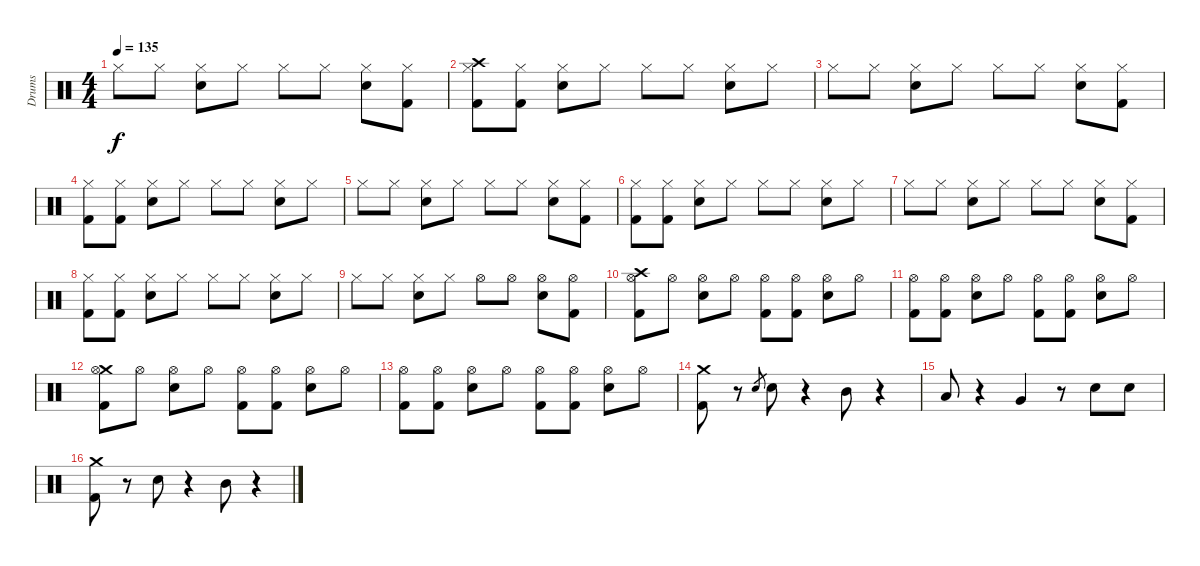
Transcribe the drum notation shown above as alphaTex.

\track ("Drums" "Drums") {instrument percussion}
\staff {score}
\articulation defaults
\ts (4 4)
\tempo 135
\clef neutral
\ks c "Hi-Hat (closed)".8{dy f} "Hi-Hat (closed)".8
("Hi-Hat (closed)" "Electric Snare (hit)").8 "Hi-Hat (closed)".8 "Hi-Hat (closed)".8 "Hi-Hat (closed)".8 ("Hi-Hat (closed)" "Electric Snare (hit)").8 ("Hi-Hat (closed)" "Kick (hit) 2").8 |
("Crash high (hit)" "Hi-Hat (closed)" "Kick (hit) 2").8 ("Hi-Hat (closed)" "Kick (hit) 2").8 ("Hi-Hat (closed)" "Electric Snare (hit)").8 "Hi-Hat (closed)".8 "Hi-Hat (closed)".8 "Hi-Hat (closed)".8 ("Hi-Hat (closed)" "Electric Snare (hit)").8 "Hi-Hat (closed)".8 |
"Hi-Hat (closed)".8 "Hi-Hat (closed)".8 ("Hi-Hat (closed)" "Electric Snare (hit)").8 "Hi-Hat (closed)".8 "Hi-Hat (closed)".8 "Hi-Hat (closed)".8 ("Hi-Hat (closed)" "Electric Snare (hit)").8 ("Hi-Hat (closed)" "Kick (hit) 2").8 |
("Hi-Hat (closed)" "Kick (hit) 2").8 ("Hi-Hat (closed)" "Kick (hit) 2").8 ("Hi-Hat (closed)" "Electric Snare (hit)").8 "Hi-Hat (closed)".8 "Hi-Hat (closed)".8 "Hi-Hat (closed)".8 ("Hi-Hat (closed)" "Electric Snare (hit)").8 "Hi-Hat (closed)".8 |
"Hi-Hat (closed)".8 "Hi-Hat (closed)".8 ("Hi-Hat (closed)" "Electric Snare (hit)").8 "Hi-Hat (closed)".8 "Hi-Hat (closed)".8 "Hi-Hat (closed)".8 ("Hi-Hat (closed)" "Electric Snare (hit)").8 ("Hi-Hat (closed)" "Kick (hit) 2").8 |
("Hi-Hat (closed)" "Kick (hit) 2").8 ("Hi-Hat (closed)" "Kick (hit) 2").8 ("Hi-Hat (closed)" "Electric Snare (hit)").8 "Hi-Hat (closed)".8 "Hi-Hat (closed)".8 "Hi-Hat (closed)".8 ("Hi-Hat (closed)" "Electric Snare (hit)").8 "Hi-Hat (closed)".8 |
"Hi-Hat (closed)".8 "Hi-Hat (closed)".8 ("Hi-Hat (closed)" "Electric Snare (hit)").8 "Hi-Hat (closed)".8 "Hi-Hat (closed)".8 "Hi-Hat (closed)".8 ("Hi-Hat (closed)" "Electric Snare (hit)").8 ("Hi-Hat (closed)" "Kick (hit) 2").8 |
("Hi-Hat (closed)" "Kick (hit) 2").8 ("Hi-Hat (closed)" "Kick (hit) 2").8 ("Hi-Hat (closed)" "Electric Snare (hit)").8 "Hi-Hat (closed)".8 "Hi-Hat (closed)".8 "Hi-Hat (closed)".8 ("Hi-Hat (closed)" "Electric Snare (hit)").8 "Hi-Hat (closed)".8 |
"Hi-Hat (closed)".8 "Hi-Hat (closed)".8 ("Hi-Hat (closed)" "Electric Snare (hit)").8 "Hi-Hat (closed)".8 "Hi-Hat (open)".8 "Hi-Hat (open)".8 ("Hi-Hat (open)" "Electric Snare (hit)").8 ("Hi-Hat (open)" "Kick (hit) 2").8 |
("Crash high (hit)" "Hi-Hat (open)" "Kick (hit) 2").8 "Hi-Hat (open)".8 ("Hi-Hat (open)" "Electric Snare (hit)").8 "Hi-Hat (open)".8 ("Hi-Hat (open)" "Kick (hit) 2").8 ("Hi-Hat (open)" "Kick (hit) 2").8 ("Hi-Hat (open)" "Electric Snare (hit)").8 "Hi-Hat (open)".8 |
("Hi-Hat (open)" "Kick (hit) 2").8 ("Hi-Hat (open)" "Kick (hit) 2").8 ("Hi-Hat (open)" "Electric Snare (hit)").8 "Hi-Hat (open)".8 ("Hi-Hat (open)" "Kick (hit) 2").8 ("Hi-Hat (open)" "Kick (hit) 2").8 ("Hi-Hat (open)" "Electric Snare (hit)").8 "Hi-Hat (open)".8 |
("Crash medium (hit)" "Hi-Hat (open)" "Kick (hit) 2").8 "Hi-Hat (open)".8 ("Hi-Hat (open)" "Electric Snare (hit)").8 "Hi-Hat (open)".8 ("Hi-Hat (open)" "Kick (hit) 2").8 ("Hi-Hat (open)" "Kick (hit) 2").8 ("Hi-Hat (open)" "Electric Snare (hit)").8 "Hi-Hat (open)".8 |
("Hi-Hat (open)" "Kick (hit) 2").8 ("Hi-Hat (open)" "Kick (hit) 2").8 ("Hi-Hat (open)" "Electric Snare (hit)").8 "Hi-Hat (open)".8 ("Hi-Hat (open)" "Kick (hit) 2").8 ("Hi-Hat (open)" "Kick (hit) 2").8 ("Hi-Hat (open)" "Electric Snare (hit)").8 "Hi-Hat (open)".8 |
("Crash medium (hit)" "Kick (hit) 2").8 r.8 "Electric Snare (hit)".8{gr} "Electric Snare (hit)".8 r.4 "Mid Tom (hit)".8 r.4 |
"Low Tom (hit)".8 r.4 "Very Low Tom (hit)".4 r.8 "Electric Snare (hit)".8 "Electric Snare (hit)".8 |
("Crash medium (hit)" "Kick (hit) 2").8 r.8 "Electric Snare (hit)".8 r.4 "Mid Tom (hit)".8 r.4
